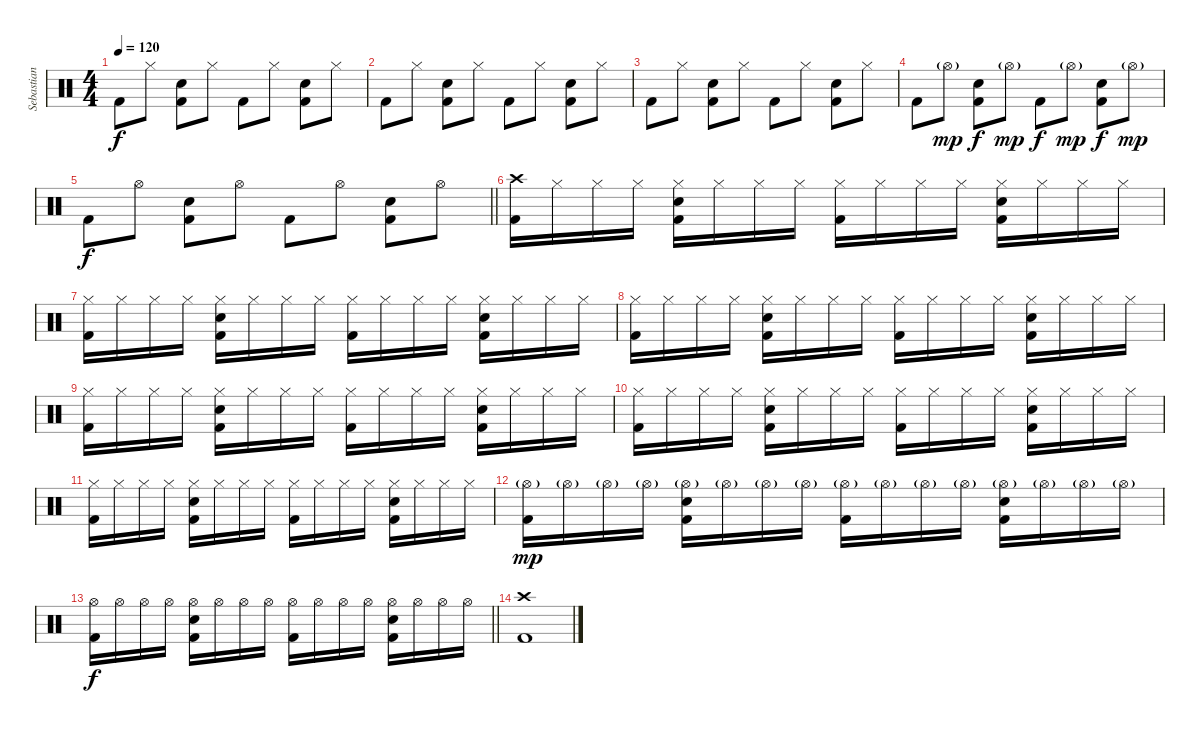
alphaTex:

\track ("Sebastian (Drums)" "Sebastian ") {instrument percussion}
\staff {score}
\articulation defaults
\ts (4 4)
\tempo 120
\clef neutral
\ks c "Kick (hit) 2".8{dy f} "Hi-Hat (closed)".8
("Electric Snare (hit)" "Kick (hit) 2").8 "Hi-Hat (closed)".8 "Kick (hit) 2".8 "Hi-Hat (closed)".8 ("Electric Snare (hit)" "Kick (hit) 2").8 "Hi-Hat (closed)".8 |
"Kick (hit) 2".8 "Hi-Hat (closed)".8 ("Electric Snare (hit)" "Kick (hit) 2").8 "Hi-Hat (closed)".8 "Kick (hit) 2".8 "Hi-Hat (closed)".8 ("Electric Snare (hit)" "Kick (hit) 2").8 "Hi-Hat (closed)".8 |
"Kick (hit) 2".8 "Hi-Hat (closed)".8 ("Electric Snare (hit)" "Kick (hit) 2").8 "Hi-Hat (closed)".8 "Kick (hit) 2".8 "Hi-Hat (closed)".8 ("Electric Snare (hit)" "Kick (hit) 2").8 "Hi-Hat (closed)".8 |
"Kick (hit) 2".8 "Hi-Hat (open)"{g}.8{dy mp} ("Electric Snare (hit)" "Kick (hit) 2").8{dy f} "Hi-Hat (open)"{g}.8{dy mp} "Kick (hit) 2".8{dy f} "Hi-Hat (open)"{g}.8{dy mp} ("Electric Snare (hit)" "Kick (hit) 2").8{dy f} "Hi-Hat (open)"{g}.8{dy mp} |
\barLineRight lightlight "Kick (hit) 2".8{dy f} "Hi-Hat (open)".8
("Electric Snare (hit)" "Kick (hit) 2").8 "Hi-Hat (open)".8 "Kick (hit) 2".8 "Hi-Hat (open)".8 ("Electric Snare (hit)" "Kick (hit) 2").8 "Hi-Hat (open)".8 |
("Crash high (hit)" "Kick (hit) 2").16 "Hi-Hat (closed)".16 "Hi-Hat (closed)".16 "Hi-Hat (closed)".16 ("Hi-Hat (closed)" "Electric Snare (hit)" "Kick (hit) 2").16 "Hi-Hat (closed)".16 "Hi-Hat (closed)".16 "Hi-Hat (closed)".16 ("Hi-Hat (closed)" "Kick (hit) 2").16 "Hi-Hat (closed)".16 "Hi-Hat (closed)".16 "Hi-Hat (closed)".16 ("Hi-Hat (closed)" "Electric Snare (hit)" "Kick (hit) 2").16 "Hi-Hat (closed)".16 "Hi-Hat (closed)".16 "Hi-Hat (closed)".16 |
("Hi-Hat (closed)" "Kick (hit) 2").16 "Hi-Hat (closed)".16 "Hi-Hat (closed)".16 "Hi-Hat (closed)".16 ("Hi-Hat (closed)" "Electric Snare (hit)" "Kick (hit) 2").16 "Hi-Hat (closed)".16 "Hi-Hat (closed)".16 "Hi-Hat (closed)".16 ("Hi-Hat (closed)" "Kick (hit) 2").16 "Hi-Hat (closed)".16 "Hi-Hat (closed)".16 "Hi-Hat (closed)".16 ("Hi-Hat (closed)" "Electric Snare (hit)" "Kick (hit) 2").16 "Hi-Hat (closed)".16 "Hi-Hat (closed)".16 "Hi-Hat (closed)".16 |
("Hi-Hat (closed)" "Kick (hit) 2").16 "Hi-Hat (closed)".16 "Hi-Hat (closed)".16 "Hi-Hat (closed)".16 ("Hi-Hat (closed)" "Electric Snare (hit)" "Kick (hit) 2").16 "Hi-Hat (closed)".16 "Hi-Hat (closed)".16 "Hi-Hat (closed)".16 ("Hi-Hat (closed)" "Kick (hit) 2").16 "Hi-Hat (closed)".16 "Hi-Hat (closed)".16 "Hi-Hat (closed)".16 ("Hi-Hat (closed)" "Electric Snare (hit)" "Kick (hit) 2").16 "Hi-Hat (closed)".16 "Hi-Hat (closed)".16 "Hi-Hat (closed)".16 |
("Hi-Hat (closed)" "Kick (hit) 2").16 "Hi-Hat (closed)".16 "Hi-Hat (closed)".16 "Hi-Hat (closed)".16 ("Hi-Hat (closed)" "Electric Snare (hit)" "Kick (hit) 2").16 "Hi-Hat (closed)".16 "Hi-Hat (closed)".16 "Hi-Hat (closed)".16 ("Hi-Hat (closed)" "Kick (hit) 2").16 "Hi-Hat (closed)".16 "Hi-Hat (closed)".16 "Hi-Hat (closed)".16 ("Hi-Hat (closed)" "Electric Snare (hit)" "Kick (hit) 2").16 "Hi-Hat (closed)".16 "Hi-Hat (closed)".16 "Hi-Hat (closed)".16 |
("Hi-Hat (closed)" "Kick (hit) 2").16 "Hi-Hat (closed)".16 "Hi-Hat (closed)".16 "Hi-Hat (closed)".16 ("Hi-Hat (closed)" "Electric Snare (hit)" "Kick (hit) 2").16 "Hi-Hat (closed)".16 "Hi-Hat (closed)".16 "Hi-Hat (closed)".16 ("Hi-Hat (closed)" "Kick (hit) 2").16 "Hi-Hat (closed)".16 "Hi-Hat (closed)".16 "Hi-Hat (closed)".16 ("Hi-Hat (closed)" "Electric Snare (hit)" "Kick (hit) 2").16 "Hi-Hat (closed)".16 "Hi-Hat (closed)".16 "Hi-Hat (closed)".16 |
("Hi-Hat (closed)" "Kick (hit) 2").16 "Hi-Hat (closed)".16 "Hi-Hat (closed)".16 "Hi-Hat (closed)".16 ("Hi-Hat (closed)" "Electric Snare (hit)" "Kick (hit) 2").16 "Hi-Hat (closed)".16 "Hi-Hat (closed)".16 "Hi-Hat (closed)".16 ("Hi-Hat (closed)" "Kick (hit) 2").16 "Hi-Hat (closed)".16 "Hi-Hat (closed)".16 "Hi-Hat (closed)".16 ("Hi-Hat (closed)" "Electric Snare (hit)" "Kick (hit) 2").16 "Hi-Hat (closed)".16 "Hi-Hat (closed)".16 "Hi-Hat (closed)".16 |
("Hi-Hat (open)"{g} "Kick (hit) 2").16{dy mp} "Hi-Hat (open)"{g}.16 "Hi-Hat (open)"{g}.16 "Hi-Hat (open)"{g}.16 ("Hi-Hat (open)"{g} "Electric Snare (hit)" "Kick (hit) 2").16 "Hi-Hat (open)"{g}.16 "Hi-Hat (open)"{g}.16 "Hi-Hat (open)"{g}.16 ("Hi-Hat (open)"{g} "Kick (hit) 2").16 "Hi-Hat (open)"{g}.16 "Hi-Hat (open)"{g}.16 "Hi-Hat (open)"{g}.16 ("Hi-Hat (open)"{g} "Electric Snare (hit)" "Kick (hit) 2").16 "Hi-Hat (open)"{g}.16 "Hi-Hat (open)"{g}.16 "Hi-Hat (open)"{g}.16 |
\barLineRight lightlight
("Hi-Hat (open)" "Kick (hit) 2").16{dy f} "Hi-Hat (open)".16 "Hi-Hat (open)".16 "Hi-Hat (open)".16 ("Hi-Hat (open)" "Electric Snare (hit)" "Kick (hit) 2").16 "Hi-Hat (open)".16 "Hi-Hat (open)".16 "Hi-Hat (open)".16 ("Hi-Hat (open)" "Kick (hit) 2").16 "Hi-Hat (open)".16 "Hi-Hat (open)".16 "Hi-Hat (open)".16 ("Hi-Hat (open)" "Electric Snare (hit)" "Kick (hit) 2").16 "Hi-Hat (open)".16 "Hi-Hat (open)".16 "Hi-Hat (open)".16 |
("Crash high (hit)" "Kick (hit) 2").1
